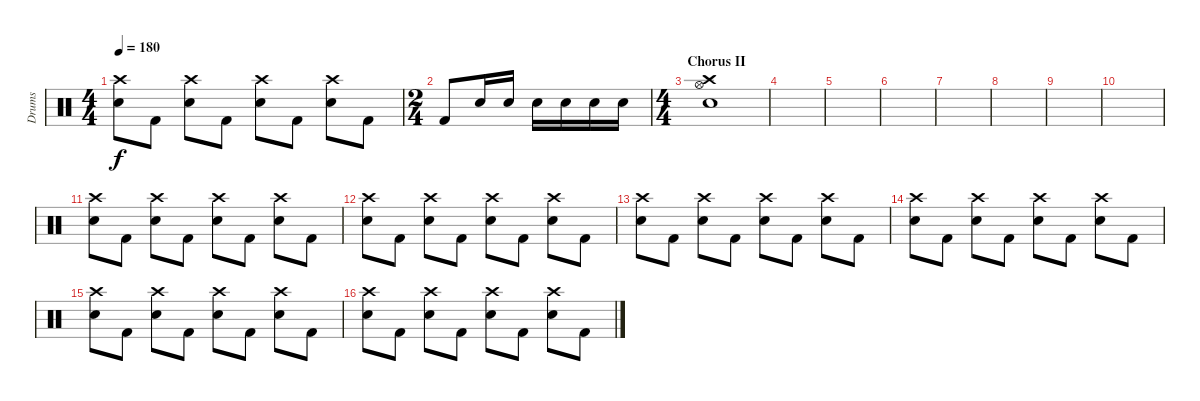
\track ("Drums" "Drums") {instrument percussion}
\staff {score}
\articulation defaults
\ts (4 4)
\tempo 180
\clef neutral
\ks c
("Crash high (hit)" "Snare (hit) 2").8{dy f} "Kick (hit) 2".8 ("Crash high (hit)" "Snare (hit) 2").8 "Kick (hit) 2".8 ("Crash high (hit)" "Snare (hit) 2").8 "Kick (hit) 2".8 ("Crash high (hit)" "Snare (hit) 2").8 "Kick (hit) 2".8 |
\ts (2 4)
"Kick (hit) 2".8 "Snare (hit) 2".16 "Snare (hit) 2".16 "Snare (hit) 2".16 "Snare (hit) 2".16 "Snare (hit) 2".16 "Snare (hit) 2".16 |
\ts (4 4)
\section ("" "Chorus II")
("Snare (hit) 2" "Hi-Hat (open)" "Crash high (hit)").1 |
|
|
|
|
|
|
|
("Crash high (hit)" "Snare (hit) 2").8 "Kick (hit) 2".8 ("Crash high (hit)" "Snare (hit) 2").8 "Kick (hit) 2".8 ("Crash high (hit)" "Snare (hit) 2").8 "Kick (hit) 2".8 ("Crash high (hit)" "Snare (hit) 2").8 "Kick (hit) 2".8 |
("Crash high (hit)" "Snare (hit) 2").8 "Kick (hit) 2".8 ("Crash high (hit)" "Snare (hit) 2").8 "Kick (hit) 2".8 ("Crash high (hit)" "Snare (hit) 2").8 "Kick (hit) 2".8 ("Crash high (hit)" "Snare (hit) 2").8 "Kick (hit) 2".8 |
("Crash high (hit)" "Snare (hit) 2").8 "Kick (hit) 2".8 ("Crash high (hit)" "Snare (hit) 2").8 "Kick (hit) 2".8 ("Crash high (hit)" "Snare (hit) 2").8 "Kick (hit) 2".8 ("Crash high (hit)" "Snare (hit) 2").8 "Kick (hit) 2".8 |
("Crash high (hit)" "Snare (hit) 2").8 "Kick (hit) 2".8 ("Crash high (hit)" "Snare (hit) 2").8 "Kick (hit) 2".8 ("Crash high (hit)" "Snare (hit) 2").8 "Kick (hit) 2".8 ("Crash high (hit)" "Snare (hit) 2").8 "Kick (hit) 2".8 |
("Crash high (hit)" "Snare (hit) 2").8 "Kick (hit) 2".8 ("Crash high (hit)" "Snare (hit) 2").8 "Kick (hit) 2".8 ("Crash high (hit)" "Snare (hit) 2").8 "Kick (hit) 2".8 ("Crash high (hit)" "Snare (hit) 2").8 "Kick (hit) 2".8 |
("Crash high (hit)" "Snare (hit) 2").8 "Kick (hit) 2".8 ("Crash high (hit)" "Snare (hit) 2").8 "Kick (hit) 2".8 ("Crash high (hit)" "Snare (hit) 2").8 "Kick (hit) 2".8 ("Crash high (hit)" "Snare (hit) 2").8 "Kick (hit) 2".8
